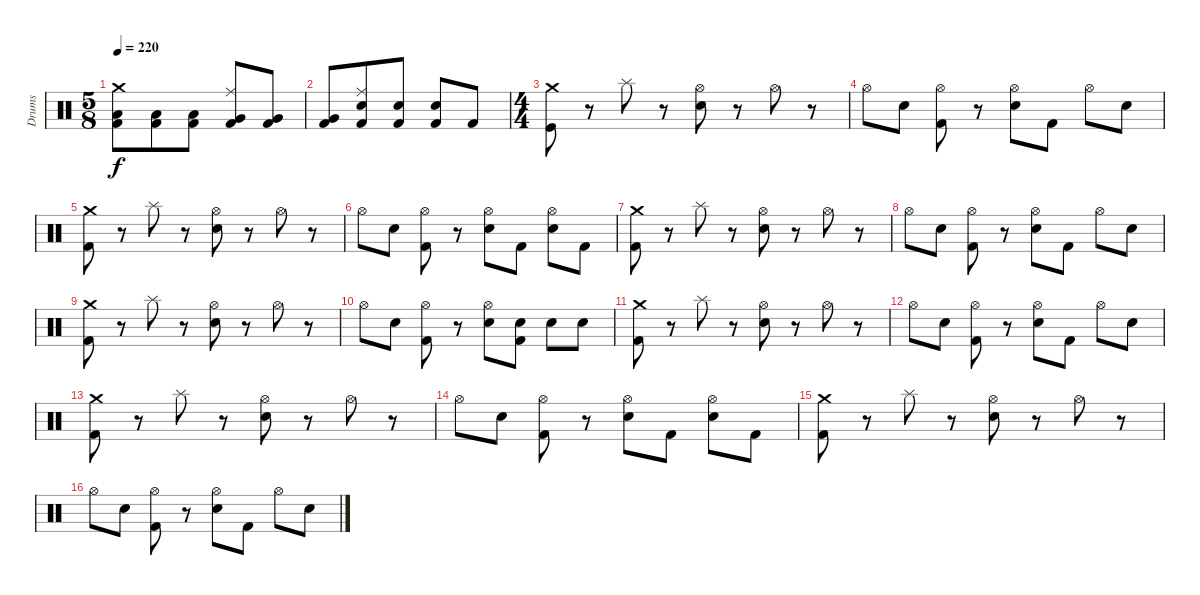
\track ("Drums" "Drums") {instrument percussion}
\staff {score}
\articulation defaults
\ts (5 8)
\tempo 220
\clef neutral
\ks c
("Crash medium (hit)" "Low Tom (hit)" "Kick (hit) 2").8{dy f} ("Low Tom (hit)" "Kick (hit) 2").8 ("Low Tom (hit)" "Kick (hit) 2").8 ("Ride (middle)" "Very Low Tom (hit)" "Kick (hit) 2").8 ("Very Low Tom (hit)" "Kick (hit) 2").8 |
("Very Low Tom (hit)" "Kick (hit) 2").8 ("Ride (middle)" "Electric Snare (hit)" "Kick (hit) 2").8 ("Electric Snare (hit)" "Kick (hit) 2").8 ("Electric Snare (hit)" "Kick (hit) 2").8 "Kick (hit) 2".8 |
\ts (4 4)
("Crash medium (hit)" "Kick (hit)").8 r.8 "Splash (hit)".8 r.8 ("Hi-Hat (open)" "Electric Snare (hit)").8 r.8 "Hi-Hat (open)".8 r.8 |
"Hi-Hat (open)".8 "Electric Snare (hit)".8 ("Hi-Hat (open)" "Kick (hit) 2").8 r.8 ("Hi-Hat (open)" "Electric Snare (hit)").8 "Kick (hit) 2".8 "Hi-Hat (open)".8 "Electric Snare (hit)".8 |
("Crash medium (hit)" "Kick (hit) 2").8 r.8 "Splash (hit)".8 r.8 ("Hi-Hat (open)" "Electric Snare (hit)").8 r.8 "Hi-Hat (open)".8 r.8 |
"Hi-Hat (open)".8 "Electric Snare (hit)".8 ("Hi-Hat (open)" "Kick (hit) 2").8 r.8 ("Hi-Hat (open)" "Electric Snare (hit)").8 "Kick (hit) 2".8 ("Hi-Hat (open)" "Electric Snare (hit)").8 "Kick (hit) 2".8 |
("Crash medium (hit)" "Kick (hit) 2").8 r.8 "Splash (hit)".8 r.8 ("Hi-Hat (open)" "Electric Snare (hit)").8 r.8 "Hi-Hat (open)".8 r.8 |
"Hi-Hat (open)".8 "Electric Snare (hit)".8 ("Hi-Hat (open)" "Kick (hit) 2").8 r.8 ("Hi-Hat (open)" "Electric Snare (hit)").8 "Kick (hit) 2".8 "Hi-Hat (open)".8 "Electric Snare (hit)".8 |
("Crash medium (hit)" "Kick (hit) 2").8 r.8 "Splash (hit)".8 r.8 ("Hi-Hat (open)" "Electric Snare (hit)").8 r.8 "Hi-Hat (open)".8 r.8 |
"Hi-Hat (open)".8 "Electric Snare (hit)".8 ("Hi-Hat (open)" "Kick (hit) 2").8 r.8 ("Hi-Hat (open)" "Electric Snare (hit)").8 ("Electric Snare (hit)" "Kick (hit) 2").8 "Electric Snare (hit)".8 "Electric Snare (hit)".8 |
("Crash medium (hit)" "Kick (hit) 2").8 r.8 "Splash (hit)".8 r.8 ("Hi-Hat (open)" "Electric Snare (hit)").8 r.8 "Hi-Hat (open)".8 r.8 |
"Hi-Hat (open)".8 "Electric Snare (hit)".8 ("Hi-Hat (open)" "Kick (hit) 2").8 r.8 ("Hi-Hat (open)" "Electric Snare (hit)").8 "Kick (hit) 2".8 "Hi-Hat (open)".8 "Electric Snare (hit)".8 |
("Crash medium (hit)" "Kick (hit) 2").8 r.8 "Splash (hit)".8 r.8 ("Hi-Hat (open)" "Electric Snare (hit)").8 r.8 "Hi-Hat (open)".8 r.8 |
"Hi-Hat (open)".8 "Electric Snare (hit)".8 ("Hi-Hat (open)" "Kick (hit) 2").8 r.8 ("Hi-Hat (open)" "Electric Snare (hit)").8 "Kick (hit) 2".8 ("Hi-Hat (open)" "Electric Snare (hit)").8 "Kick (hit) 2".8 |
("Crash medium (hit)" "Kick (hit) 2").8 r.8 "Splash (hit)".8 r.8 ("Hi-Hat (open)" "Electric Snare (hit)").8 r.8 "Hi-Hat (open)".8 r.8 |
"Hi-Hat (open)".8 "Electric Snare (hit)".8 ("Hi-Hat (open)" "Kick (hit) 2").8 r.8 ("Hi-Hat (open)" "Electric Snare (hit)").8 "Kick (hit) 2".8 "Hi-Hat (open)".8 "Electric Snare (hit)".8
